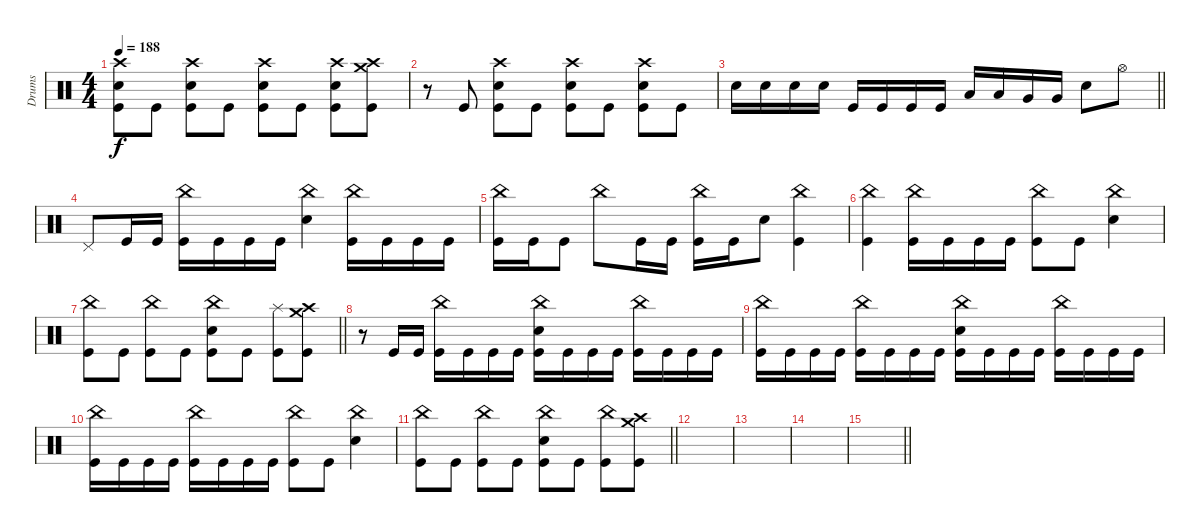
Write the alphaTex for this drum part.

\track ("Drums" "Drums") {instrument percussion}
\staff
\articulation defaults
\ts (4 4)
\tempo 188
\clef neutral
\ks c
("Crash high (hit)" "Electric Snare (hit)" "Kick (hit)").8{dy f} "Kick (hit)".8 ("Crash high (hit)" "Electric Snare (hit)" "Kick (hit)").8 "Kick (hit)".8 ("Crash high (hit)" "Electric Snare (hit)" "Kick (hit)").8 "Kick (hit)".8 ("Crash high (hit)" "Electric Snare (hit)" "Kick (hit)").8 ("Crash high (hit)" "Crash medium (hit)" "Kick (hit)").8 |
r.8 "Kick (hit)".8 ("Crash high (hit)" "Electric Snare (hit)" "Kick (hit)").8 "Kick (hit)".8 ("Crash high (hit)" "Electric Snare (hit)" "Kick (hit)").8 "Kick (hit)".8 ("Crash high (hit)" "Electric Snare (hit)" "Kick (hit)").8 "Kick (hit)".8 |
\barLineRight lightlight "Electric Snare (hit)".16 "Electric Snare (hit)".16 "Electric Snare (hit)".16 "Electric Snare (hit)".16 "Kick (hit)".16 "Kick (hit)".16 "Kick (hit)".16 "Kick (hit)".16 "Low Tom (hit)".16 "Low Tom (hit)".16 "Very Low Tom (hit)".16 "Very Low Tom (hit)".16 "Electric Snare (hit)".8 "Hi-Hat (open)".8
|
\section ("" "")
"Pedal Hi-Hat (hit)".8 "Kick (hit)".16 "Kick (hit)".16 ("China (hit)" "Kick (hit)").16 "Kick (hit)".16 "Kick (hit)".16 "Kick (hit)".16 ("China (hit)" "Electric Snare (hit)").4 ("China (hit)" "Kick (hit)").16 "Kick (hit)".16 "Kick (hit)".16 "Kick (hit)".16 |
("China (hit)" "Kick (hit)").16 "Kick (hit)".16 "Kick (hit)".8 "China (hit)".8 "Kick (hit)".16 "Kick (hit)".16 ("China (hit)" "Kick (hit)").16 "Kick (hit)".16 "Electric Snare (hit)".8 ("China (hit)" "Kick (hit)").4 |
("China (hit)" "Kick (hit)").4 ("China (hit)" "Kick (hit)").16 "Kick (hit)".16 "Kick (hit)".16 "Kick (hit)".16 ("China (hit)" "Kick (hit)").8 "Kick (hit)".8 ("China (hit)" "Electric Snare (hit)").4 |
\barLineRight lightlight
("China (hit)" "Kick (hit)").8 "Kick (hit)".8 ("China (hit)" "Kick (hit)").8 "Kick (hit)".8 ("China (hit)" "Electric Snare (hit)" "Kick (hit)").8 "Kick (hit)".8 ("Splash (hit)" "Kick (hit)").8 ("Crash high (hit)" "Crash medium (hit)" "Kick (hit)").8 |
r.8 "Kick (hit)".16 "Kick (hit)".16 ("China (hit)" "Kick (hit)").16 "Kick (hit)".16 "Kick (hit)".16 "Kick (hit)".16 ("China (hit)" "Electric Snare (hit)" "Kick (hit)").16 "Kick (hit)".16 "Kick (hit)".16 "Kick (hit)".16 ("China (hit)" "Kick (hit)").16 "Kick (hit)".16 "Kick (hit)".16 "Kick (hit)".16 |
("China (hit)" "Kick (hit)").16 "Kick (hit)".16 "Kick (hit)".16 "Kick (hit)".16 ("China (hit)" "Kick (hit)").16 "Kick (hit)".16 "Kick (hit)".16 "Kick (hit)".16 ("China (hit)" "Electric Snare (hit)" "Kick (hit)").16 "Kick (hit)".16 "Kick (hit)".16 "Kick (hit)".16 ("China (hit)" "Kick (hit)").16 "Kick (hit)".16 "Kick (hit)".16 "Kick (hit)".16 |
("China (hit)" "Kick (hit)").16 "Kick (hit)".16 "Kick (hit)".16 "Kick (hit)".16 ("China (hit)" "Kick (hit)").16 "Kick (hit)".16 "Kick (hit)".16 "Kick (hit)".16 ("China (hit)" "Kick (hit)").8 "Kick (hit)".8 ("China (hit)" "Electric Snare (hit)").4 |
\barLineRight lightlight
("China (hit)" "Kick (hit)").8 "Kick (hit)".8 ("China (hit)" "Kick (hit)").8 "Kick (hit)".8 ("China (hit)" "Electric Snare (hit)" "Kick (hit)").8 "Kick (hit)".8 ("China (hit)" "Kick (hit)").8 ("Crash high (hit)" "Crash medium (hit)" "Kick (hit)").8 |
\section ("" "")
|
|
|
\barLineRight lightlight
